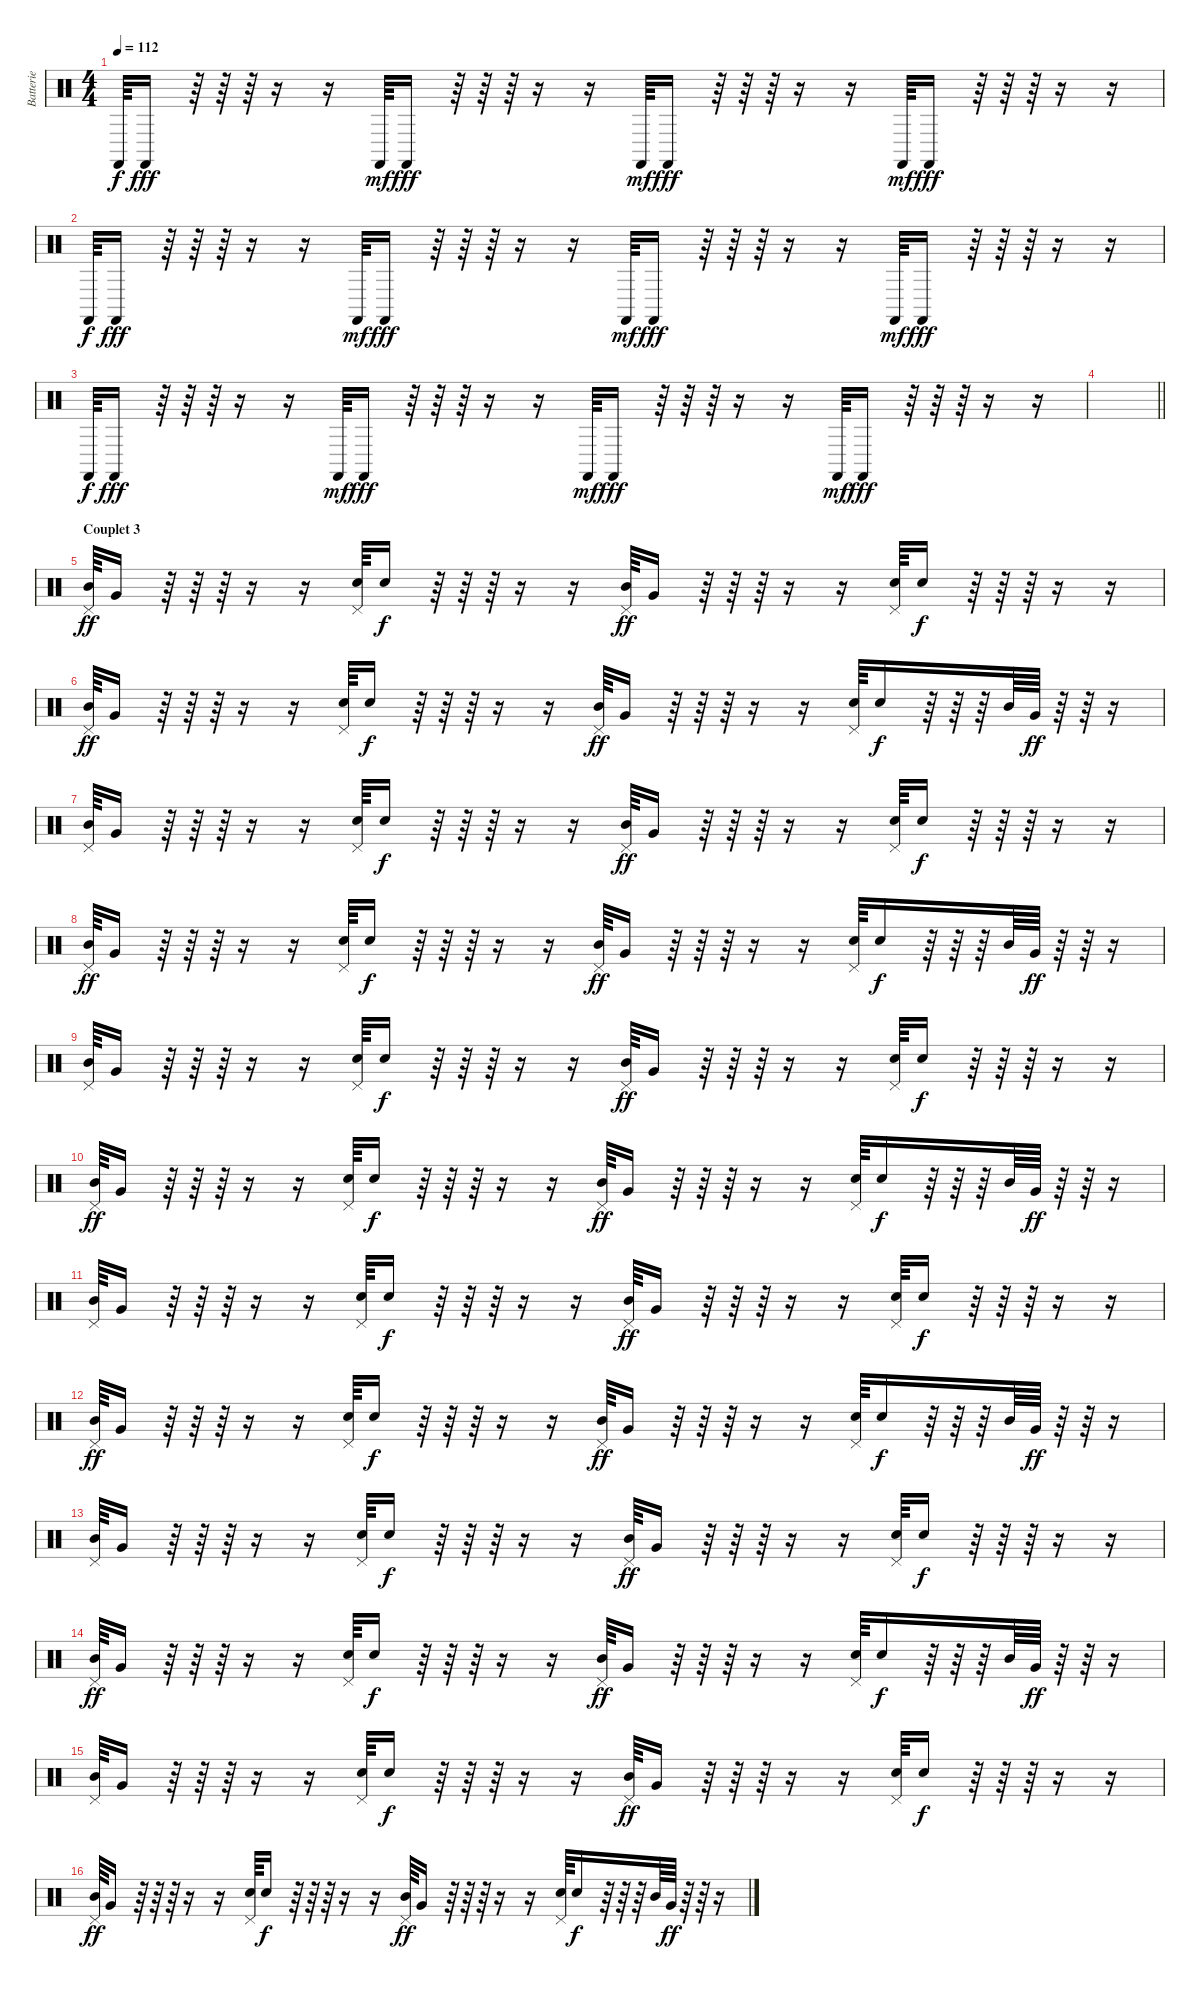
\track ("Batterie" "Batterie") {instrument percussion}
\staff {score}
\articulation defaults
\ts (4 4)
\tempo 112
\clef neutral
\ks c "Castanets (hit)".64{dy f} "Castanets (hit)".16{dy fff}
r.64 r.64 r.64 r.16 r.16 "Castanets (hit)".64{dy mf} "Castanets (hit)".16{dy fff} r.64 r.64 r.64 r.16 r.16 "Castanets (hit)".64{dy mf} "Castanets (hit)".16{dy fff} r.64 r.64 r.64 r.16 r.16 "Castanets (hit)".64{dy mf} "Castanets (hit)".16{dy fff} r.64 r.64 r.64 r.16 r.16 |
"Castanets (hit)".64{dy f} "Castanets (hit)".16{dy fff} r.64 r.64 r.64 r.16 r.16 "Castanets (hit)".64{dy mf} "Castanets (hit)".16{dy fff} r.64 r.64 r.64 r.16 r.16 "Castanets (hit)".64{dy mf} "Castanets (hit)".16{dy fff} r.64 r.64 r.64 r.16 r.16 "Castanets (hit)".64{dy mf} "Castanets (hit)".16{dy fff} r.64 r.64 r.64 r.16 r.16 |
"Castanets (hit)".64{dy f} "Castanets (hit)".16{dy fff} r.64 r.64 r.64 r.16 r.16 "Castanets (hit)".64{dy mf} "Castanets (hit)".16{dy fff} r.64 r.64 r.64 r.16 r.16 "Castanets (hit)".64{dy mf} "Castanets (hit)".16{dy fff} r.64 r.64 r.64 r.16 r.16 "Castanets (hit)".64{dy mf} "Castanets (hit)".16{dy fff} r.64 r.64 r.64 r.16 r.16 |
\barLineRight lightlight
|
\section ("" "Couplet 3")
("Mid Tom (hit)" "Pedal Hi-Hat (hit)").64{dy ff} "Very Low Tom (hit)".16 r.64 r.64 r.64 r.16 r.16 ("Electric Snare (hit)" "Pedal Hi-Hat (hit)").64 "Electric Snare (hit)".16{dy f} r.64 r.64 r.64 r.16 r.16 ("Mid Tom (hit)" "Pedal Hi-Hat (hit)").64{dy ff} "Very Low Tom (hit)".16 r.64 r.64 r.64 r.16 r.16 ("Electric Snare (hit)" "Pedal Hi-Hat (hit)").64 "Electric Snare (hit)".16{dy f} r.64 r.64 r.64 r.16 r.16 |
("Mid Tom (hit)" "Pedal Hi-Hat (hit)").64{dy ff} "Very Low Tom (hit)".16 r.64 r.64 r.64 r.16 r.16 ("Electric Snare (hit)" "Pedal Hi-Hat (hit)").64 "Electric Snare (hit)".16{dy f} r.64 r.64 r.64 r.16 r.16 ("Mid Tom (hit)" "Pedal Hi-Hat (hit)").64{dy ff} "Very Low Tom (hit)".16 r.64 r.64 r.64 r.16 r.16 ("Electric Snare (hit)" "Pedal Hi-Hat (hit)").64 "Electric Snare (hit)".16{dy f} r.64 r.64 r.64 "Mid Tom (hit)".64 "Very Low Tom (hit)".64{dy ff} r.64 r.64 r.16 |
("Mid Tom (hit)" "Pedal Hi-Hat (hit)").64 "Very Low Tom (hit)".16 r.64 r.64 r.64 r.16 r.16 ("Electric Snare (hit)" "Pedal Hi-Hat (hit)").64 "Electric Snare (hit)".16{dy f} r.64 r.64 r.64 r.16 r.16 ("Mid Tom (hit)" "Pedal Hi-Hat (hit)").64{dy ff} "Very Low Tom (hit)".16 r.64 r.64 r.64 r.16 r.16 ("Electric Snare (hit)" "Pedal Hi-Hat (hit)").64 "Electric Snare (hit)".16{dy f} r.64 r.64 r.64 r.16 r.16 |
("Mid Tom (hit)" "Pedal Hi-Hat (hit)").64{dy ff} "Very Low Tom (hit)".16 r.64 r.64 r.64 r.16 r.16 ("Electric Snare (hit)" "Pedal Hi-Hat (hit)").64 "Electric Snare (hit)".16{dy f} r.64 r.64 r.64 r.16 r.16 ("Mid Tom (hit)" "Pedal Hi-Hat (hit)").64{dy ff} "Very Low Tom (hit)".16 r.64 r.64 r.64 r.16 r.16 ("Electric Snare (hit)" "Pedal Hi-Hat (hit)").64 "Electric Snare (hit)".16{dy f} r.64 r.64 r.64 "Mid Tom (hit)".64 "Very Low Tom (hit)".64{dy ff} r.64 r.64 r.16 |
("Mid Tom (hit)" "Pedal Hi-Hat (hit)").64 "Very Low Tom (hit)".16 r.64 r.64 r.64 r.16 r.16 ("Electric Snare (hit)" "Pedal Hi-Hat (hit)").64 "Electric Snare (hit)".16{dy f} r.64 r.64 r.64 r.16 r.16 ("Mid Tom (hit)" "Pedal Hi-Hat (hit)").64{dy ff} "Very Low Tom (hit)".16 r.64 r.64 r.64 r.16 r.16 ("Electric Snare (hit)" "Pedal Hi-Hat (hit)").64 "Electric Snare (hit)".16{dy f} r.64 r.64 r.64 r.16 r.16 |
("Mid Tom (hit)" "Pedal Hi-Hat (hit)").64{dy ff} "Very Low Tom (hit)".16 r.64 r.64 r.64 r.16 r.16 ("Electric Snare (hit)" "Pedal Hi-Hat (hit)").64 "Electric Snare (hit)".16{dy f} r.64 r.64 r.64 r.16 r.16 ("Mid Tom (hit)" "Pedal Hi-Hat (hit)").64{dy ff} "Very Low Tom (hit)".16 r.64 r.64 r.64 r.16 r.16 ("Electric Snare (hit)" "Pedal Hi-Hat (hit)").64 "Electric Snare (hit)".16{dy f} r.64 r.64 r.64 "Mid Tom (hit)".64 "Very Low Tom (hit)".64{dy ff} r.64 r.64 r.16 |
("Mid Tom (hit)" "Pedal Hi-Hat (hit)").64 "Very Low Tom (hit)".16 r.64 r.64 r.64 r.16 r.16 ("Electric Snare (hit)" "Pedal Hi-Hat (hit)").64 "Electric Snare (hit)".16{dy f} r.64 r.64 r.64 r.16 r.16 ("Mid Tom (hit)" "Pedal Hi-Hat (hit)").64{dy ff} "Very Low Tom (hit)".16 r.64 r.64 r.64 r.16 r.16 ("Electric Snare (hit)" "Pedal Hi-Hat (hit)").64 "Electric Snare (hit)".16{dy f} r.64 r.64 r.64 r.16 r.16 |
("Mid Tom (hit)" "Pedal Hi-Hat (hit)").64{dy ff} "Very Low Tom (hit)".16 r.64 r.64 r.64 r.16 r.16 ("Electric Snare (hit)" "Pedal Hi-Hat (hit)").64 "Electric Snare (hit)".16{dy f} r.64 r.64 r.64 r.16 r.16 ("Mid Tom (hit)" "Pedal Hi-Hat (hit)").64{dy ff} "Very Low Tom (hit)".16 r.64 r.64 r.64 r.16 r.16 ("Electric Snare (hit)" "Pedal Hi-Hat (hit)").64 "Electric Snare (hit)".16{dy f} r.64 r.64 r.64 "Mid Tom (hit)".64 "Very Low Tom (hit)".64{dy ff} r.64 r.64 r.16 |
("Mid Tom (hit)" "Pedal Hi-Hat (hit)").64 "Very Low Tom (hit)".16 r.64 r.64 r.64 r.16 r.16 ("Electric Snare (hit)" "Pedal Hi-Hat (hit)").64 "Electric Snare (hit)".16{dy f} r.64 r.64 r.64 r.16 r.16 ("Mid Tom (hit)" "Pedal Hi-Hat (hit)").64{dy ff} "Very Low Tom (hit)".16 r.64 r.64 r.64 r.16 r.16 ("Electric Snare (hit)" "Pedal Hi-Hat (hit)").64 "Electric Snare (hit)".16{dy f} r.64 r.64 r.64 r.16 r.16 |
("Mid Tom (hit)" "Pedal Hi-Hat (hit)").64{dy ff} "Very Low Tom (hit)".16 r.64 r.64 r.64 r.16 r.16 ("Electric Snare (hit)" "Pedal Hi-Hat (hit)").64 "Electric Snare (hit)".16{dy f} r.64 r.64 r.64 r.16 r.16 ("Mid Tom (hit)" "Pedal Hi-Hat (hit)").64{dy ff} "Very Low Tom (hit)".16 r.64 r.64 r.64 r.16 r.16 ("Electric Snare (hit)" "Pedal Hi-Hat (hit)").64 "Electric Snare (hit)".16{dy f} r.64 r.64 r.64 "Mid Tom (hit)".64 "Very Low Tom (hit)".64{dy ff} r.64 r.64 r.16 |
("Mid Tom (hit)" "Pedal Hi-Hat (hit)").64 "Very Low Tom (hit)".16 r.64 r.64 r.64 r.16 r.16 ("Electric Snare (hit)" "Pedal Hi-Hat (hit)").64 "Electric Snare (hit)".16{dy f} r.64 r.64 r.64 r.16 r.16 ("Mid Tom (hit)" "Pedal Hi-Hat (hit)").64{dy ff} "Very Low Tom (hit)".16 r.64 r.64 r.64 r.16 r.16 ("Electric Snare (hit)" "Pedal Hi-Hat (hit)").64 "Electric Snare (hit)".16{dy f} r.64 r.64 r.64 r.16 r.16 |
("Mid Tom (hit)" "Pedal Hi-Hat (hit)").64{dy ff} "Very Low Tom (hit)".16 r.64 r.64 r.64 r.16 r.16 ("Electric Snare (hit)" "Pedal Hi-Hat (hit)").64 "Electric Snare (hit)".16{dy f} r.64 r.64 r.64 r.16 r.16 ("Mid Tom (hit)" "Pedal Hi-Hat (hit)").64{dy ff} "Very Low Tom (hit)".16 r.64 r.64 r.64 r.16 r.16 ("Electric Snare (hit)" "Pedal Hi-Hat (hit)").64 "Electric Snare (hit)".16{dy f} r.64 r.64 r.64 "Mid Tom (hit)".64 "Very Low Tom (hit)".64{dy ff} r.64 r.64 r.16
